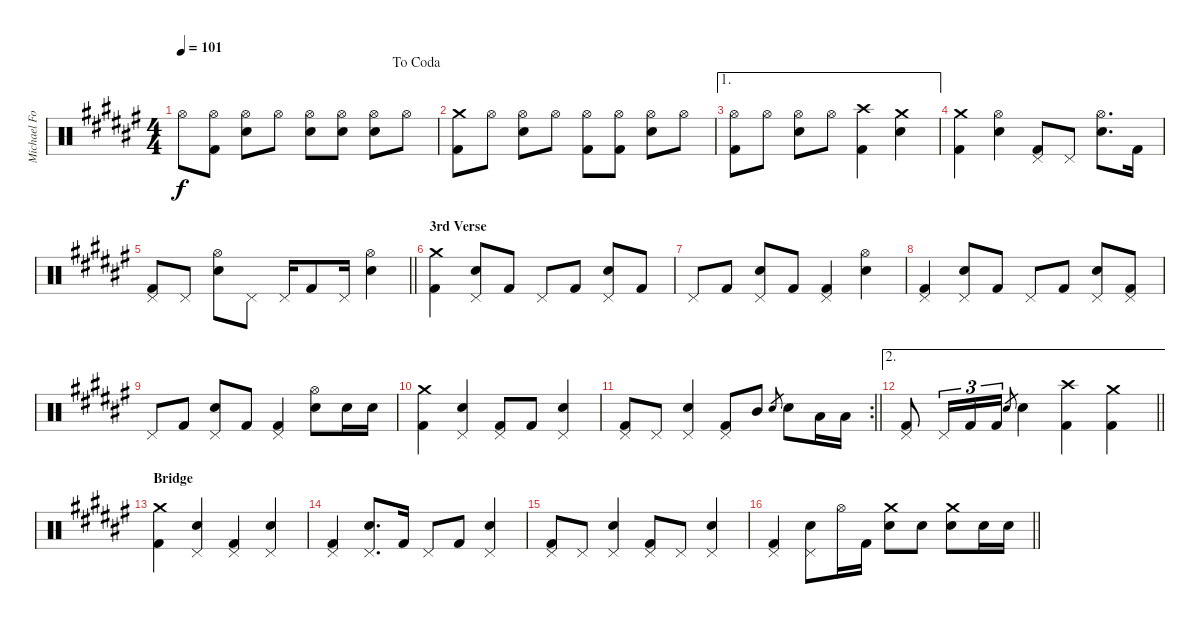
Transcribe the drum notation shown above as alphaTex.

\track ("Michael Foster" "Michael Fo") {instrument percussion}
\staff {score}
\articulation defaults
\ts (4 4)
\jump dacoda
\tempo 101
\clef neutral
\ks f# "Hi-Hat (open)".8{dy f}
("Hi-Hat (open)" "Kick (hit) 2").8 ("Hi-Hat (open)" "Snare (hit) 2").8 "Hi-Hat (open)".8 ("Hi-Hat (open)" "Snare (hit) 2").8 ("Hi-Hat (open)" "Snare (hit) 2").8 ("Hi-Hat (open)" "Snare (hit) 2").8 "Hi-Hat (open)".8 |
("Crash medium (hit)" "Kick (hit) 2").8 "Hi-Hat (open)".8 ("Hi-Hat (open)" "Snare (hit) 2").8 "Hi-Hat (open)".8 ("Hi-Hat (open)" "Kick (hit) 2").8 ("Hi-Hat (open)" "Kick (hit) 2").8 ("Hi-Hat (open)" "Snare (hit) 2").8 "Hi-Hat (open)".8 |
\ae 1
("Hi-Hat (open)" "Kick (hit) 2").8 "Hi-Hat (open)".8 ("Hi-Hat (open)" "Snare (hit) 2").8 "Hi-Hat (open)".8 ("Crash high (hit)" "Kick (hit) 2").4 ("Crash medium (hit)" "Snare (hit) 2").4 |
("Crash medium (hit)" "Kick (hit) 2").4 ("Hi-Hat (open)" "Snare (hit) 2").4 ("Pedal Hi-Hat (hit)" "Kick (hit) 2").8 "Pedal Hi-Hat (hit)".8 ("Hi-Hat (open)" "Snare (hit) 2").8{d} "Kick (hit) 2".16 |
\barLineRight lightlight
("Pedal Hi-Hat (hit)" "Kick (hit) 2").8 "Pedal Hi-Hat (hit)".8 ("Hi-Hat (open)" "Snare (hit) 2").8 "Pedal Hi-Hat (hit)".8 "Pedal Hi-Hat (hit)".16 "Kick (hit) 2".8 "Pedal Hi-Hat (hit)".16 ("Hi-Hat (open)" "Snare (hit) 2").4 |
\section ("" "3rd Verse")
("Crash medium (hit)" "Kick (hit) 2").4 ("Pedal Hi-Hat (hit)" "Snare (hit) 2").8 "Kick (hit) 2".8 "Pedal Hi-Hat (hit)".8 "Kick (hit) 2".8 ("Pedal Hi-Hat (hit)" "Snare (hit) 2").8 "Kick (hit) 2".8 |
"Pedal Hi-Hat (hit)".8 "Kick (hit) 2".8 ("Pedal Hi-Hat (hit)" "Snare (hit) 2").8 "Kick (hit) 2".8 ("Pedal Hi-Hat (hit)" "Kick (hit) 2").4 ("Hi-Hat (open)" "Snare (hit) 2").4 |
("Pedal Hi-Hat (hit)" "Kick (hit) 2").4 ("Pedal Hi-Hat (hit)" "Snare (hit) 2").8 "Kick (hit) 2".8 "Pedal Hi-Hat (hit)".8 "Kick (hit) 2".8 ("Pedal Hi-Hat (hit)" "Snare (hit) 2").8 ("Pedal Hi-Hat (hit)" "Kick (hit) 2").8 |
"Pedal Hi-Hat (hit)".8 "Kick (hit) 2".8 ("Pedal Hi-Hat (hit)" "Snare (hit) 2").8 "Kick (hit) 2".8 ("Pedal Hi-Hat (hit)" "Kick (hit) 2").4 ("Hi-Hat (open)" "Snare (hit) 2").8 "Snare (hit) 2".16 "Snare (hit) 2".16 |
("Crash medium (hit)" "Kick (hit) 2").4 ("Pedal Hi-Hat (hit)" "Snare (hit) 2").4 ("Pedal Hi-Hat (hit)" "Kick (hit) 2").8 "Kick (hit) 2".8 ("Pedal Hi-Hat (hit)" "Snare (hit) 2").4 |
\rc 2
\barLineRight lightlight
("Pedal Hi-Hat (hit)" "Kick (hit) 2").8 "Pedal Hi-Hat (hit)".8 ("Pedal Hi-Hat (hit)" "Snare (hit) 2").4 ("Pedal Hi-Hat (hit)" "Kick (hit) 2").8 "Mid Tom (hit)".8 "Snare (hit) 2".8{gr} "Snare (hit) 2".8 "Low Tom (hit)".16 "Low Tom (hit)".16 |
\ae 2
\barLineRight lightlight
("Pedal Hi-Hat (hit)" "Kick (hit) 2").8 "Pedal Hi-Hat (hit)".16{tu (3 2)} "Kick (hit) 2".16{tu (3 2)} "Kick (hit) 2".16{tu (3 2)} "Snare (hit) 2".8{gr} "Snare (hit) 2".4 ("Crash high (hit)" "Kick (hit) 2").4 ("Crash medium (hit)" "Kick (hit) 2").4 |
\section ("" "Bridge")
("Crash medium (hit)" "Kick (hit) 2").4 ("Pedal Hi-Hat (hit)" "Snare (hit) 2").4 ("Pedal Hi-Hat (hit)" "Kick (hit) 2").4 ("Pedal Hi-Hat (hit)" "Snare (hit) 2").4 |
("Pedal Hi-Hat (hit)" "Kick (hit) 2").4 ("Pedal Hi-Hat (hit)" "Snare (hit) 2").8{d} "Kick (hit) 2".16 "Pedal Hi-Hat (hit)".8 "Kick (hit) 2".8 ("Pedal Hi-Hat (hit)" "Snare (hit) 2").4 |
("Pedal Hi-Hat (hit)" "Kick (hit) 2").8 "Pedal Hi-Hat (hit)".8 ("Pedal Hi-Hat (hit)" "Snare (hit) 2").4 ("Pedal Hi-Hat (hit)" "Kick (hit) 2").8 "Pedal Hi-Hat (hit)".8 ("Pedal Hi-Hat (hit)" "Snare (hit) 2").4 |
\barLineRight lightlight
("Pedal Hi-Hat (hit)" "Kick (hit) 2").4 ("Pedal Hi-Hat (hit)" "Snare (hit) 2").8 "Hi-Hat (open)".16 "Kick (hit) 2".16 ("Crash medium (hit)" "Snare (hit) 2").8 "Snare (hit) 2".8 ("Crash medium (hit)" "Snare (hit) 2").8 "Snare (hit) 2".16 "Snare (hit) 2".16
